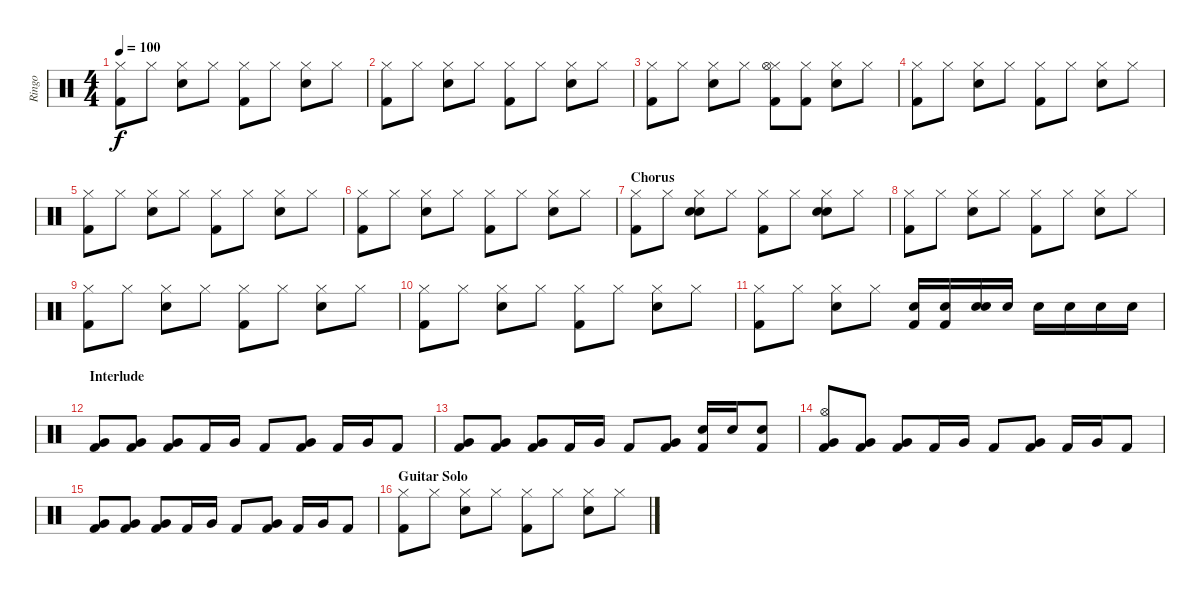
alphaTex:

\track ("Ringo" "Ringo") {instrument percussion}
\staff {score}
\articulation defaults
\ts (4 4)
\tempo 100
\clef neutral
\ks c
("Hi-Hat (closed)" "Kick (hit) 2").8{dy f} "Hi-Hat (closed)".8 ("Hi-Hat (closed)" "Electric Snare (hit)").8 "Hi-Hat (closed)".8 ("Hi-Hat (closed)" "Kick (hit) 2").8 "Hi-Hat (closed)".8 ("Hi-Hat (closed)" "Electric Snare (hit)").8 "Hi-Hat (closed)".8 |
("Hi-Hat (closed)" "Kick (hit) 2").8 "Hi-Hat (closed)".8 ("Hi-Hat (closed)" "Electric Snare (hit)").8 "Hi-Hat (closed)".8 ("Hi-Hat (closed)" "Kick (hit) 2").8 "Hi-Hat (closed)".8 ("Hi-Hat (closed)" "Electric Snare (hit)").8 "Hi-Hat (closed)".8 |
("Hi-Hat (closed)" "Kick (hit) 2").8 "Hi-Hat (closed)".8 ("Hi-Hat (closed)" "Electric Snare (hit)").8 "Hi-Hat (closed)".8 ("Hi-Hat (closed)" "Hi-Hat (open)" "Kick (hit) 2").8 ("Hi-Hat (closed)" "Kick (hit) 2").8 ("Hi-Hat (closed)" "Electric Snare (hit)").8 "Hi-Hat (closed)".8 |
("Hi-Hat (closed)" "Kick (hit) 2").8 "Hi-Hat (closed)".8 ("Hi-Hat (closed)" "Electric Snare (hit)").8 "Hi-Hat (closed)".8 ("Hi-Hat (closed)" "Kick (hit) 2").8 "Hi-Hat (closed)".8 ("Hi-Hat (closed)" "Electric Snare (hit)").8 "Hi-Hat (closed)".8 |
("Hi-Hat (closed)" "Kick (hit) 2").8 "Hi-Hat (closed)".8 ("Hi-Hat (closed)" "Electric Snare (hit)").8 "Hi-Hat (closed)".8 ("Hi-Hat (closed)" "Kick (hit) 2").8 "Hi-Hat (closed)".8 ("Hi-Hat (closed)" "Electric Snare (hit)").8 "Hi-Hat (closed)".8 |
("Hi-Hat (closed)" "Kick (hit) 2").8 "Hi-Hat (closed)".8 ("Hi-Hat (closed)" "Electric Snare (hit)").8 "Hi-Hat (closed)".8 ("Hi-Hat (closed)" "Kick (hit) 2").8 "Hi-Hat (closed)".8 ("Hi-Hat (closed)" "Electric Snare (hit)").8 "Hi-Hat (closed)".8 |
\section ("" "Chorus")
("Hi-Hat (closed)" "Kick (hit) 2").8 "Hi-Hat (closed)".8 ("Hi-Hat (closed)" "Electric Snare (hit)" "Electric Snare (hit)").8 "Hi-Hat (closed)".8 ("Hi-Hat (closed)" "Kick (hit) 2").8 "Hi-Hat (closed)".8 ("Hi-Hat (closed)" "Electric Snare (hit)" "Electric Snare (hit)").8 "Hi-Hat (closed)".8 |
("Hi-Hat (closed)" "Kick (hit) 2").8 "Hi-Hat (closed)".8 ("Hi-Hat (closed)" "Electric Snare (hit)").8 "Hi-Hat (closed)".8 ("Hi-Hat (closed)" "Kick (hit) 2").8 "Hi-Hat (closed)".8 ("Hi-Hat (closed)" "Electric Snare (hit)").8 "Hi-Hat (closed)".8 |
("Hi-Hat (closed)" "Kick (hit) 2").8 "Hi-Hat (closed)".8 ("Hi-Hat (closed)" "Electric Snare (hit)").8 "Hi-Hat (closed)".8 ("Hi-Hat (closed)" "Kick (hit) 2").8 "Hi-Hat (closed)".8 ("Hi-Hat (closed)" "Electric Snare (hit)").8 "Hi-Hat (closed)".8 |
("Hi-Hat (closed)" "Kick (hit) 2").8 "Hi-Hat (closed)".8 ("Hi-Hat (closed)" "Electric Snare (hit)").8 "Hi-Hat (closed)".8 ("Hi-Hat (closed)" "Kick (hit) 2").8 "Hi-Hat (closed)".8 ("Hi-Hat (closed)" "Electric Snare (hit)").8 "Hi-Hat (closed)".8 |
("Hi-Hat (closed)" "Kick (hit) 2").8 "Hi-Hat (closed)".8 ("Hi-Hat (closed)" "Electric Snare (hit)").8 "Hi-Hat (closed)".8 ("Electric Snare (hit)" "Kick (hit) 2").16 ("Electric Snare (hit)" "Kick (hit) 2").16 ("Electric Snare (hit)" "Electric Snare (hit)").16 "Electric Snare (hit)".16 "Electric Snare (hit)".16 "Electric Snare (hit)".16 "Electric Snare (hit)".16 "Electric Snare (hit)".16 |
\section ("" "Interlude")
("Very Low Tom (hit)" "Kick (hit) 2").8 ("Very Low Tom (hit)" "Kick (hit) 2").8 ("Very Low Tom (hit)" "Kick (hit) 2").8 "Kick (hit) 2".16 "Very Low Tom (hit)".16 "Kick (hit) 2".8 ("Very Low Tom (hit)" "Kick (hit) 2").8 "Kick (hit) 2".16 "Very Low Tom (hit)".16 "Kick (hit) 2".8 |
("Very Low Tom (hit)" "Kick (hit) 2").8 ("Very Low Tom (hit)" "Kick (hit) 2").8 ("Very Low Tom (hit)" "Kick (hit) 2").8 "Kick (hit) 2".16 "Very Low Tom (hit)".16 "Kick (hit) 2".8 ("Very Low Tom (hit)" "Kick (hit) 2").8 ("Electric Snare (hit)" "Kick (hit) 2").16 "Electric Snare (hit)".16 ("Electric Snare (hit)" "Kick (hit) 2").8 |
("Hi-Hat (open)" "Very Low Tom (hit)" "Kick (hit) 2").8 ("Very Low Tom (hit)" "Kick (hit) 2").8 ("Very Low Tom (hit)" "Kick (hit) 2").8 "Kick (hit) 2".16 "Very Low Tom (hit)".16 "Kick (hit) 2".8 ("Very Low Tom (hit)" "Kick (hit) 2").8 "Kick (hit) 2".16 "Very Low Tom (hit)".16 "Kick (hit) 2".8 |
("Very Low Tom (hit)" "Kick (hit) 2").8 ("Very Low Tom (hit)" "Kick (hit) 2").8 ("Very Low Tom (hit)" "Kick (hit) 2").8 "Kick (hit) 2".16 "Very Low Tom (hit)".16 "Kick (hit) 2".8 ("Very Low Tom (hit)" "Kick (hit) 2").8 "Kick (hit) 2".16 "Very Low Tom (hit)".16 "Kick (hit) 2".8 |
\section ("" "Guitar Solo")
("Hi-Hat (closed)" "Kick (hit) 2").8 "Hi-Hat (closed)".8 ("Hi-Hat (closed)" "Electric Snare (hit)").8 "Hi-Hat (closed)".8 ("Hi-Hat (closed)" "Kick (hit) 2").8 "Hi-Hat (closed)".8 ("Hi-Hat (closed)" "Electric Snare (hit)").8 "Hi-Hat (closed)".8
